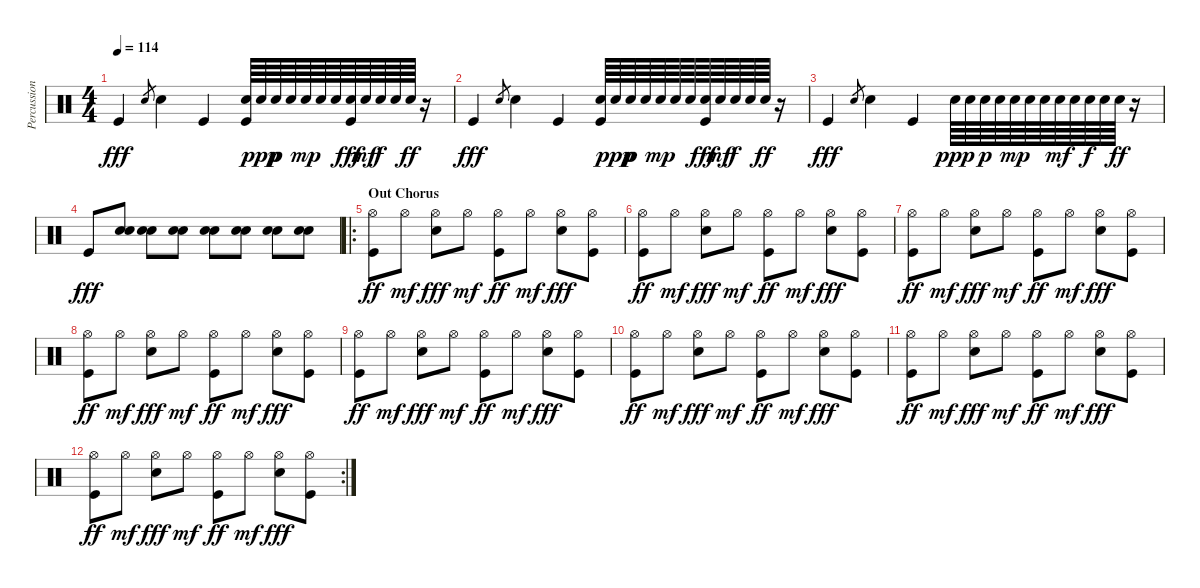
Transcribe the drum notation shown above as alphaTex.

\track ("Percussion" "Percussion") {instrument percussion}
\staff {score}
\articulation defaults
\ts (4 4)
\tempo 114
\clef neutral
\ks c "Kick (hit)".4{dy fff} "Snare (hit) 2".8{gr} "Snare (hit) 2".4 "Kick (hit)".4
("Snare (hit) 2" "Kick (hit)").64 "Snare (hit) 2".64{dy ppp} "Snare (hit) 2".64{dy p} "Snare (hit) 2".64 "Snare (hit) 2".64{dy mp} "Snare (hit) 2".64 "Snare (hit) 2".64 ("Snare (hit) 2" "Kick (hit)").64{dy fff} "Snare (hit) 2".64{dy mf} "Snare (hit) 2".64{dy f} "Snare (hit) 2".64 "Snare (hit) 2".64{dy ff} r.16 |
"Kick (hit)".4{dy fff} "Snare (hit) 2".8{gr} "Snare (hit) 2".4 "Kick (hit)".4 ("Snare (hit) 2" "Kick (hit)").64 "Snare (hit) 2".64{dy ppp} "Snare (hit) 2".64{dy p} "Snare (hit) 2".64 "Snare (hit) 2".64{dy mp} "Snare (hit) 2".64 "Snare (hit) 2".64 ("Snare (hit) 2" "Kick (hit)").64{dy fff} "Snare (hit) 2".64{dy mf} "Snare (hit) 2".64{dy f} "Snare (hit) 2".64 "Snare (hit) 2".64{dy ff} r.16 |
"Kick (hit)".4{dy fff} "Snare (hit) 2".8{gr} "Snare (hit) 2".4 "Kick (hit)".4 "Snare (hit) 2".64{dy ppp} "Snare (hit) 2".64 "Snare (hit) 2".64{dy p} "Snare (hit) 2".64 "Snare (hit) 2".64{dy mp} "Snare (hit) 2".64 "Snare (hit) 2".64 "Snare (hit) 2".64{dy mf} "Snare (hit) 2".64 "Snare (hit) 2".64{dy f} "Snare (hit) 2".64 "Snare (hit) 2".64{dy ff} r.16 |
"Kick (hit)".8{dy fff} ("Snare (hit) 2" "Electric Snare (hit)").8 ("Snare (hit) 2" "Electric Snare (hit)").8 ("Snare (hit) 2" "Electric Snare (hit)").8 ("Snare (hit) 2" "Electric Snare (hit)").8 ("Snare (hit) 2" "Electric Snare (hit)").8 ("Snare (hit) 2" "Electric Snare (hit)").8 ("Snare (hit) 2" "Electric Snare (hit)").8 |
\ro
\section ("" "Out Chorus")
("Hi-Hat (open)" "Kick (hit)").8{dy ff} "Hi-Hat (open)".8{dy mf} ("Hi-Hat (open)" "Snare (hit) 2").8{dy fff} "Hi-Hat (open)".8{dy mf} ("Hi-Hat (open)" "Kick (hit)").8{dy ff} "Hi-Hat (open)".8{dy mf} ("Hi-Hat (open)" "Snare (hit) 2").8{dy fff} ("Hi-Hat (open)" "Kick (hit)").8 |
("Hi-Hat (open)" "Kick (hit)").8{dy ff} "Hi-Hat (open)".8{dy mf} ("Hi-Hat (open)" "Snare (hit) 2").8{dy fff} "Hi-Hat (open)".8{dy mf} ("Hi-Hat (open)" "Kick (hit)").8{dy ff} "Hi-Hat (open)".8{dy mf} ("Hi-Hat (open)" "Snare (hit) 2").8{dy fff} ("Hi-Hat (open)" "Kick (hit)").8 |
("Hi-Hat (open)" "Kick (hit)").8{dy ff} "Hi-Hat (open)".8{dy mf} ("Hi-Hat (open)" "Snare (hit) 2").8{dy fff} "Hi-Hat (open)".8{dy mf} ("Hi-Hat (open)" "Kick (hit)").8{dy ff} "Hi-Hat (open)".8{dy mf} ("Hi-Hat (open)" "Snare (hit) 2").8{dy fff} ("Hi-Hat (open)" "Kick (hit)").8 |
("Hi-Hat (open)" "Kick (hit)").8{dy ff} "Hi-Hat (open)".8{dy mf} ("Hi-Hat (open)" "Snare (hit) 2").8{dy fff} "Hi-Hat (open)".8{dy mf} ("Hi-Hat (open)" "Kick (hit)").8{dy ff} "Hi-Hat (open)".8{dy mf} ("Hi-Hat (open)" "Snare (hit) 2").8{dy fff} ("Hi-Hat (open)" "Kick (hit)").8 |
("Hi-Hat (open)" "Kick (hit)").8{dy ff} "Hi-Hat (open)".8{dy mf} ("Hi-Hat (open)" "Snare (hit) 2").8{dy fff} "Hi-Hat (open)".8{dy mf} ("Hi-Hat (open)" "Kick (hit)").8{dy ff} "Hi-Hat (open)".8{dy mf} ("Hi-Hat (open)" "Snare (hit) 2").8{dy fff} ("Hi-Hat (open)" "Kick (hit)").8 |
("Hi-Hat (open)" "Kick (hit)").8{dy ff} "Hi-Hat (open)".8{dy mf} ("Hi-Hat (open)" "Snare (hit) 2").8{dy fff} "Hi-Hat (open)".8{dy mf} ("Hi-Hat (open)" "Kick (hit)").8{dy ff} "Hi-Hat (open)".8{dy mf} ("Hi-Hat (open)" "Snare (hit) 2").8{dy fff} ("Hi-Hat (open)" "Kick (hit)").8 |
("Hi-Hat (open)" "Kick (hit)").8{dy ff} "Hi-Hat (open)".8{dy mf} ("Hi-Hat (open)" "Snare (hit) 2").8{dy fff} "Hi-Hat (open)".8{dy mf} ("Hi-Hat (open)" "Kick (hit)").8{dy ff} "Hi-Hat (open)".8{dy mf} ("Hi-Hat (open)" "Snare (hit) 2").8{dy fff} ("Hi-Hat (open)" "Kick (hit)").8 |
\rc 2
("Hi-Hat (open)" "Kick (hit)").8{dy ff} "Hi-Hat (open)".8{dy mf} ("Hi-Hat (open)" "Snare (hit) 2").8{dy fff} "Hi-Hat (open)".8{dy mf} ("Hi-Hat (open)" "Kick (hit)").8{dy ff} "Hi-Hat (open)".8{dy mf} ("Hi-Hat (open)" "Snare (hit) 2").8{dy fff} ("Hi-Hat (open)" "Kick (hit)").8
